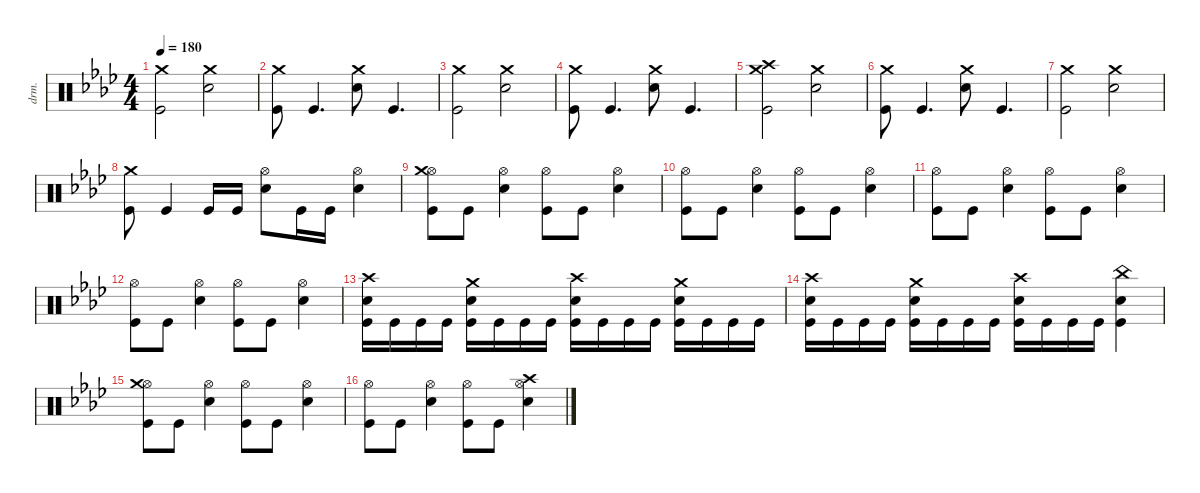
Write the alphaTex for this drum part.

\defaultSystemsLayout 4
\hideDynamics
\bracketExtendMode nobrackets
\otherSystemsTrackNameOrientation horizontal
\track ("Percussion" "drm.") {instrument percussion}
\staff {score}
\articulation defaults
\ts (4 4)
\beaming (8 2 2 2 2)
\tempo 180
\clef neutral
\ks fminor
("Crash medium (hit)"{acc forcenatural} "Kick (hit)"{acc forcenatural}).2{dy f beam Down} ("Crash medium (hit)"{acc forcenatural} "Snare (hit) 2"{acc forcenatural}).2{beam Down} |
("Crash medium (hit)"{acc forcenatural} "Kick (hit)"{acc forcenatural}).8{beam Down} "Kick (hit)"{acc forcenatural}.4{d beam Up} ("Crash medium (hit)"{acc forcenatural} "Snare (hit) 2"{acc forcenatural}).8{beam Down} "Kick (hit)"{acc forcenatural}.4{d beam Up} |
("Crash medium (hit)"{acc forcenatural} "Kick (hit)"{acc forcenatural}).2{beam Down} ("Crash medium (hit)"{acc forcenatural} "Snare (hit) 2"{acc forcenatural}).2{beam Down} |
("Crash medium (hit)"{acc forcenatural} "Kick (hit)"{acc forcenatural}).8{beam Down} "Kick (hit)"{acc forcenatural}.4{d beam Up} ("Crash medium (hit)"{acc forcenatural} "Snare (hit) 2"{acc forcenatural}).8{beam Down} "Kick (hit)"{acc forcenatural}.4{d beam Up} |
("Crash medium (hit)"{acc forcenatural} "Crash high (hit)"{acc forcenatural} "Kick (hit)"{acc forcenatural}).2{beam Down} ("Crash medium (hit)"{acc forcenatural} "Snare (hit) 2"{acc forcenatural}).2{beam Down} |
("Crash medium (hit)"{acc forcenatural} "Kick (hit)"{acc forcenatural}).8{beam Down} "Kick (hit)"{acc forcenatural}.4{d beam Up} ("Crash medium (hit)"{acc forcenatural} "Snare (hit) 2"{acc forcenatural}).8{beam Down} "Kick (hit)"{acc forcenatural}.4{d beam Up} |
("Crash medium (hit)"{acc forcenatural} "Kick (hit)"{acc forcenatural}).2{beam Down} ("Crash medium (hit)"{acc forcenatural} "Snare (hit) 2"{acc forcenatural}).2{beam Down} |
("Crash medium (hit)"{acc forcenatural} "Kick (hit)"{acc forcenatural}).8{beam Down} "Kick (hit)"{acc forcenatural}.4{beam Up} "Kick (hit)"{acc forcenatural}.16{beam Up} "Kick (hit)"{acc forcenatural}.16{beam Up} ("Hi-Hat (open)"{acc forcenatural} "Snare (hit) 2"{acc forcenatural}).8{beam Down} "Kick (hit)"{acc forcenatural}.16{beam Down} "Kick (hit)"{acc forcenatural}.16{beam Down} ("Hi-Hat (open)"{acc forcenatural} "Snare (hit) 2"{acc forcenatural}).4{beam Down} |
("Hi-Hat (open)"{acc forcenatural} "Crash medium (hit)"{acc forcenatural} "Kick (hit)"{acc forcenatural}).8{beam Down} "Kick (hit)"{acc forcenatural}.8{beam Down} ("Hi-Hat (open)"{acc forcenatural} "Snare (hit) 2"{acc forcenatural}).4{beam Down} ("Hi-Hat (open)"{acc forcenatural} "Kick (hit)"{acc forcenatural}).8{beam Down} "Kick (hit)"{acc forcenatural}.8{beam Down} ("Hi-Hat (open)"{acc forcenatural} "Snare (hit) 2"{acc forcenatural}).4{beam Down} |
("Hi-Hat (open)"{acc forcenatural} "Kick (hit)"{acc forcenatural}).8{beam Down} "Kick (hit)"{acc forcenatural}.8{beam Down} ("Hi-Hat (open)"{acc forcenatural} "Snare (hit) 2"{acc forcenatural}).4{beam Down} ("Hi-Hat (open)"{acc forcenatural} "Kick (hit)"{acc forcenatural}).8{beam Down} "Kick (hit)"{acc forcenatural}.8{beam Down} ("Hi-Hat (open)"{acc forcenatural} "Snare (hit) 2"{acc forcenatural}).4{beam Down} |
("Hi-Hat (open)"{acc forcenatural} "Kick (hit)"{acc forcenatural}).8{beam Down} "Kick (hit)"{acc forcenatural}.8{beam Down} ("Hi-Hat (open)"{acc forcenatural} "Snare (hit) 2"{acc forcenatural}).4{beam Down} ("Hi-Hat (open)"{acc forcenatural} "Kick (hit)"{acc forcenatural}).8{beam Down} "Kick (hit)"{acc forcenatural}.8{beam Down} ("Hi-Hat (open)"{acc forcenatural} "Snare (hit) 2"{acc forcenatural}).4{beam Down} |
("Hi-Hat (open)"{acc forcenatural} "Kick (hit)"{acc forcenatural}).8{beam Down} "Kick (hit)"{acc forcenatural}.8{beam Down} ("Hi-Hat (open)"{acc forcenatural} "Snare (hit) 2"{acc forcenatural}).4{beam Down} ("Hi-Hat (open)"{acc forcenatural} "Kick (hit)"{acc forcenatural}).8{beam Down} "Kick (hit)"{acc forcenatural}.8{beam Down} ("Hi-Hat (open)"{acc forcenatural} "Snare (hit) 2"{acc forcenatural}).4{beam Down} |
("Crash high (hit)"{acc forcenatural} "Snare (hit) 2"{acc forcenatural} "Kick (hit)"{acc forcenatural}).16{beam Down} "Kick (hit)"{acc forcenatural}.16{beam Down} "Kick (hit)"{acc forcenatural}.16{beam Down} "Kick (hit)"{acc forcenatural}.16{beam Down} ("Crash medium (hit)"{acc forcenatural} "Snare (hit) 2"{acc forcenatural} "Kick (hit)"{acc forcenatural}).16{beam Down} "Kick (hit)"{acc forcenatural}.16{beam Down} "Kick (hit)"{acc forcenatural}.16{beam Down} "Kick (hit)"{acc forcenatural}.16{beam Down} ("Crash high (hit)"{acc forcenatural} "Snare (hit) 2"{acc forcenatural} "Kick (hit)"{acc forcenatural}).16{beam Down} "Kick (hit)"{acc forcenatural}.16{beam Down} "Kick (hit)"{acc forcenatural}.16{beam Down} "Kick (hit)"{acc forcenatural}.16{beam Down} ("Crash medium (hit)"{acc forcenatural} "Snare (hit) 2"{acc forcenatural} "Kick (hit)"{acc forcenatural}).16{beam Down} "Kick (hit)"{acc forcenatural}.16{beam Down} "Kick (hit)"{acc forcenatural}.16{beam Down} "Kick (hit)"{acc forcenatural}.16{beam Down} |
("Crash high (hit)"{acc forcenatural} "Snare (hit) 2"{acc forcenatural} "Kick (hit)"{acc forcenatural}).16{beam Down} "Kick (hit)"{acc forcenatural}.16{beam Down} "Kick (hit)"{acc forcenatural}.16{beam Down} "Kick (hit)"{acc forcenatural}.16{beam Down} ("Crash medium (hit)"{acc forcenatural} "Snare (hit) 2"{acc forcenatural} "Kick (hit)"{acc forcenatural}).16{beam Down} "Kick (hit)"{acc forcenatural}.16{beam Down} "Kick (hit)"{acc forcenatural}.16{beam Down} "Kick (hit)"{acc forcenatural}.16{beam Down} ("Crash high (hit)"{acc forcenatural} "Snare (hit) 2"{acc forcenatural} "Kick (hit)"{acc forcenatural}).16{beam Down} "Kick (hit)"{acc forcenatural}.16{beam Down} "Kick (hit)"{acc forcenatural}.16{beam Down} "Kick (hit)"{acc forcenatural}.16{beam Down} ("China (hit)"{acc forcenatural} "Snare (hit) 2"{acc forcenatural} "Kick (hit)"{acc forcenatural}).4{beam Down} |
("Hi-Hat (open)"{acc forcenatural} "Crash medium (hit)"{acc forcenatural} "Kick (hit)"{acc forcenatural}).8{beam Down} "Kick (hit)"{acc forcenatural}.8{beam Down} ("Hi-Hat (open)"{acc forcenatural} "Snare (hit) 2"{acc forcenatural}).4{beam Down} ("Hi-Hat (open)"{acc forcenatural} "Kick (hit)"{acc forcenatural}).8{beam Down} "Kick (hit)"{acc forcenatural}.8{beam Down} ("Hi-Hat (open)"{acc forcenatural} "Snare (hit) 2"{acc forcenatural}).4{beam Down} |
("Hi-Hat (open)"{acc forcenatural} "Kick (hit)"{acc forcenatural}).8{beam Down} "Kick (hit)"{acc forcenatural}.8{beam Down} ("Hi-Hat (open)"{acc forcenatural} "Snare (hit) 2"{acc forcenatural}).4{beam Down} ("Hi-Hat (open)"{acc forcenatural} "Kick (hit)"{acc forcenatural}).8{beam Down} "Kick (hit)"{acc forcenatural}.8{beam Down} ("Hi-Hat (open)"{acc forcenatural} "Crash high (hit)"{acc forcenatural} "Snare (hit) 2"{acc forcenatural}).4{beam Down}
